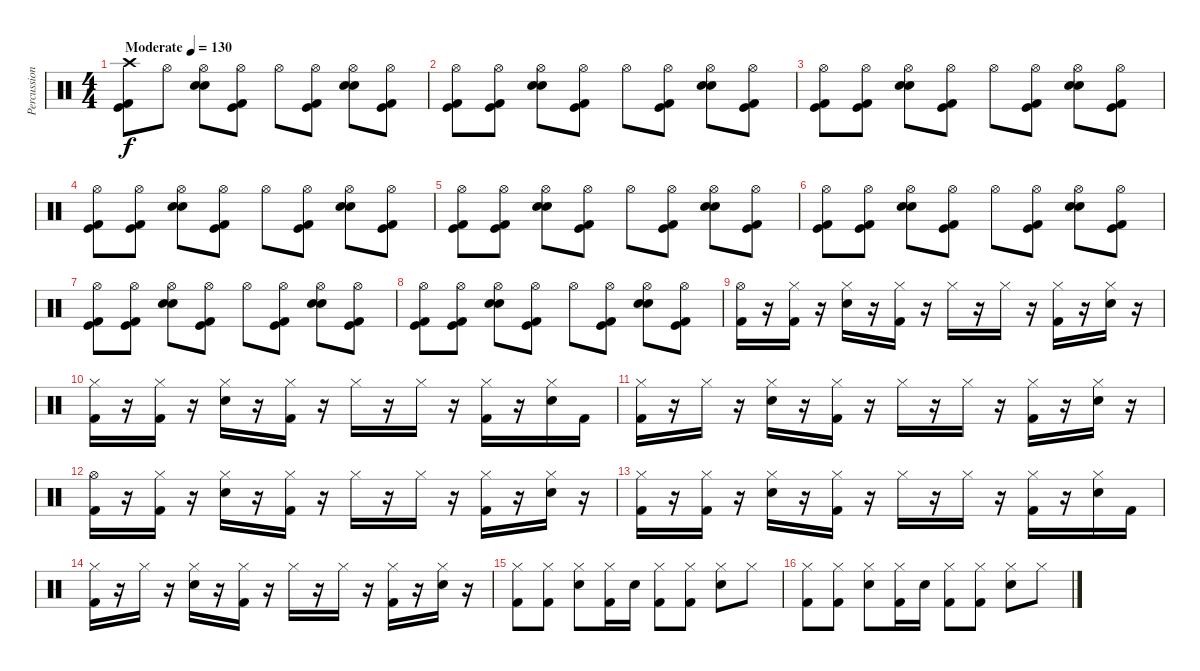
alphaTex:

\track ("Percussions" "Percussion") {instrument percussion}
\staff {score}
\articulation defaults
\ts (4 4)
\tempo (130 "Moderate")
\clef neutral
\ks c
("Crash high (hit)" "Kick (hit)" "Kick (hit) 2").8{dy f} "Hi-Hat (open)".8 ("Hi-Hat (open)" "Snare (hit) 2" "Electric Snare (hit)").8 ("Hi-Hat (open)" "Kick (hit)" "Kick (hit) 2").8 "Hi-Hat (open)".8 ("Hi-Hat (open)" "Kick (hit)" "Kick (hit) 2").8 ("Hi-Hat (open)" "Snare (hit) 2" "Electric Snare (hit)").8 ("Hi-Hat (open)" "Kick (hit)" "Kick (hit) 2").8 |
("Hi-Hat (open)" "Kick (hit)" "Kick (hit) 2").8 ("Hi-Hat (open)" "Kick (hit)" "Kick (hit) 2").8 ("Hi-Hat (open)" "Snare (hit) 2" "Electric Snare (hit)").8 ("Hi-Hat (open)" "Kick (hit)" "Kick (hit) 2").8 "Hi-Hat (open)".8 ("Hi-Hat (open)" "Kick (hit)" "Kick (hit) 2").8 ("Hi-Hat (open)" "Snare (hit) 2" "Electric Snare (hit)").8 ("Hi-Hat (open)" "Kick (hit)" "Kick (hit) 2").8 |
("Hi-Hat (open)" "Kick (hit)" "Kick (hit) 2").8 ("Hi-Hat (open)" "Kick (hit)" "Kick (hit) 2").8 ("Hi-Hat (open)" "Snare (hit) 2" "Electric Snare (hit)").8 ("Hi-Hat (open)" "Kick (hit)" "Kick (hit) 2").8 "Hi-Hat (open)".8 ("Hi-Hat (open)" "Kick (hit)" "Kick (hit) 2").8 ("Hi-Hat (open)" "Snare (hit) 2" "Electric Snare (hit)").8 ("Hi-Hat (open)" "Kick (hit)" "Kick (hit) 2").8 |
("Hi-Hat (open)" "Kick (hit)" "Kick (hit) 2").8 ("Hi-Hat (open)" "Kick (hit)" "Kick (hit) 2").8 ("Hi-Hat (open)" "Snare (hit) 2" "Electric Snare (hit)").8 ("Hi-Hat (open)" "Kick (hit)" "Kick (hit) 2").8 "Hi-Hat (open)".8 ("Hi-Hat (open)" "Kick (hit)" "Kick (hit) 2").8 ("Hi-Hat (open)" "Snare (hit) 2" "Electric Snare (hit)").8 ("Hi-Hat (open)" "Kick (hit)" "Kick (hit) 2").8 |
("Hi-Hat (open)" "Kick (hit)" "Kick (hit) 2").8 ("Hi-Hat (open)" "Kick (hit)" "Kick (hit) 2").8 ("Hi-Hat (open)" "Snare (hit) 2" "Electric Snare (hit)").8 ("Hi-Hat (open)" "Kick (hit)" "Kick (hit) 2").8 "Hi-Hat (open)".8 ("Hi-Hat (open)" "Kick (hit)" "Kick (hit) 2").8 ("Hi-Hat (open)" "Snare (hit) 2" "Electric Snare (hit)").8 ("Hi-Hat (open)" "Kick (hit)" "Kick (hit) 2").8 |
("Hi-Hat (open)" "Kick (hit)" "Kick (hit) 2").8 ("Hi-Hat (open)" "Kick (hit)" "Kick (hit) 2").8 ("Hi-Hat (open)" "Snare (hit) 2" "Electric Snare (hit)").8 ("Hi-Hat (open)" "Kick (hit)" "Kick (hit) 2").8 "Hi-Hat (open)".8 ("Hi-Hat (open)" "Kick (hit)" "Kick (hit) 2").8 ("Hi-Hat (open)" "Snare (hit) 2" "Electric Snare (hit)").8 ("Hi-Hat (open)" "Kick (hit)" "Kick (hit) 2").8 |
("Hi-Hat (open)" "Kick (hit)" "Kick (hit) 2").8 ("Hi-Hat (open)" "Kick (hit)" "Kick (hit) 2").8 ("Hi-Hat (open)" "Snare (hit) 2" "Electric Snare (hit)").8 ("Hi-Hat (open)" "Kick (hit)" "Kick (hit) 2").8 "Hi-Hat (open)".8 ("Hi-Hat (open)" "Kick (hit)" "Kick (hit) 2").8 ("Hi-Hat (open)" "Snare (hit) 2" "Electric Snare (hit)").8 ("Hi-Hat (open)" "Kick (hit)" "Kick (hit) 2").8 |
("Hi-Hat (open)" "Kick (hit)" "Kick (hit) 2").8 ("Hi-Hat (open)" "Kick (hit)" "Kick (hit) 2").8 ("Hi-Hat (open)" "Snare (hit) 2" "Electric Snare (hit)").8 ("Hi-Hat (open)" "Kick (hit)" "Kick (hit) 2").8 "Hi-Hat (open)".8 ("Hi-Hat (open)" "Kick (hit)" "Kick (hit) 2").8 ("Hi-Hat (open)" "Snare (hit) 2" "Electric Snare (hit)").8 ("Hi-Hat (open)" "Kick (hit)" "Kick (hit) 2").8 |
("Hi-Hat (open)" "Kick (hit) 2").16 r.16 ("Hi-Hat (closed)" "Kick (hit) 2").16 r.16 ("Hi-Hat (closed)" "Electric Snare (hit)").16 r.16 ("Hi-Hat (closed)" "Kick (hit) 2").16 r.16 "Hi-Hat (closed)".16 r.16 "Hi-Hat (closed)".16 r.16 ("Hi-Hat (closed)" "Kick (hit) 2").16 r.16 ("Hi-Hat (closed)" "Electric Snare (hit)").16 r.16 |
("Hi-Hat (closed)" "Kick (hit) 2").16 r.16 ("Hi-Hat (closed)" "Kick (hit) 2").16 r.16 ("Hi-Hat (closed)" "Electric Snare (hit)").16 r.16 ("Hi-Hat (closed)" "Kick (hit) 2").16 r.16 "Hi-Hat (closed)".16 r.16 "Hi-Hat (closed)".16 r.16 ("Hi-Hat (closed)" "Kick (hit) 2").16 r.16 ("Hi-Hat (closed)" "Electric Snare (hit)").16 "Kick (hit) 2".16 |
("Hi-Hat (closed)" "Kick (hit) 2").16 r.16 "Hi-Hat (closed)".16 r.16 ("Hi-Hat (closed)" "Electric Snare (hit)").16 r.16 ("Hi-Hat (closed)" "Kick (hit) 2").16 r.16 "Hi-Hat (closed)".16 r.16 "Hi-Hat (closed)".16 r.16 ("Hi-Hat (closed)" "Kick (hit) 2").16 r.16 ("Hi-Hat (closed)" "Electric Snare (hit)").16 r.16 |
("Hi-Hat (open)" "Kick (hit) 2").16 r.16 ("Hi-Hat (closed)" "Kick (hit) 2").16 r.16 ("Hi-Hat (closed)" "Electric Snare (hit)").16 r.16 ("Hi-Hat (closed)" "Kick (hit) 2").16 r.16 "Hi-Hat (closed)".16 r.16 "Hi-Hat (closed)".16 r.16 ("Hi-Hat (closed)" "Kick (hit) 2").16 r.16 ("Hi-Hat (closed)" "Electric Snare (hit)").16 r.16 |
("Hi-Hat (closed)" "Kick (hit) 2").16 r.16 ("Hi-Hat (closed)" "Kick (hit) 2").16 r.16 ("Hi-Hat (closed)" "Electric Snare (hit)").16 r.16 ("Hi-Hat (closed)" "Kick (hit) 2").16 r.16 "Hi-Hat (closed)".16 r.16 "Hi-Hat (closed)".16 r.16 ("Hi-Hat (closed)" "Kick (hit) 2").16 r.16 ("Hi-Hat (closed)" "Electric Snare (hit)").16 "Kick (hit) 2".16 |
("Hi-Hat (closed)" "Kick (hit) 2").16 r.16 "Hi-Hat (closed)".16 r.16 ("Hi-Hat (closed)" "Electric Snare (hit)").16 r.16 ("Hi-Hat (closed)" "Kick (hit) 2").16 r.16 "Hi-Hat (closed)".16 r.16 "Hi-Hat (closed)".16 r.16 ("Hi-Hat (closed)" "Kick (hit) 2").16 r.16 ("Hi-Hat (closed)" "Electric Snare (hit)").16 r.16 |
("Hi-Hat (closed)" "Kick (hit) 2").8 ("Hi-Hat (closed)" "Kick (hit) 2").8 ("Hi-Hat (closed)" "Snare (hit) 2").8 ("Hi-Hat (closed)" "Kick (hit) 2").16 "Electric Snare (hit)".16 ("Hi-Hat (closed)" "Kick (hit) 2").8 ("Hi-Hat (closed)" "Kick (hit) 2").8 ("Hi-Hat (closed)" "Snare (hit) 2").8 "Hi-Hat (closed)".8 |
("Hi-Hat (closed)" "Kick (hit) 2").8 ("Hi-Hat (closed)" "Kick (hit) 2").8 ("Hi-Hat (closed)" "Snare (hit) 2").8 ("Hi-Hat (closed)" "Kick (hit) 2").16 "Electric Snare (hit)".16 ("Hi-Hat (closed)" "Kick (hit) 2").8 ("Hi-Hat (closed)" "Kick (hit) 2").8 ("Hi-Hat (closed)" "Snare (hit) 2").8 "Hi-Hat (closed)".8
